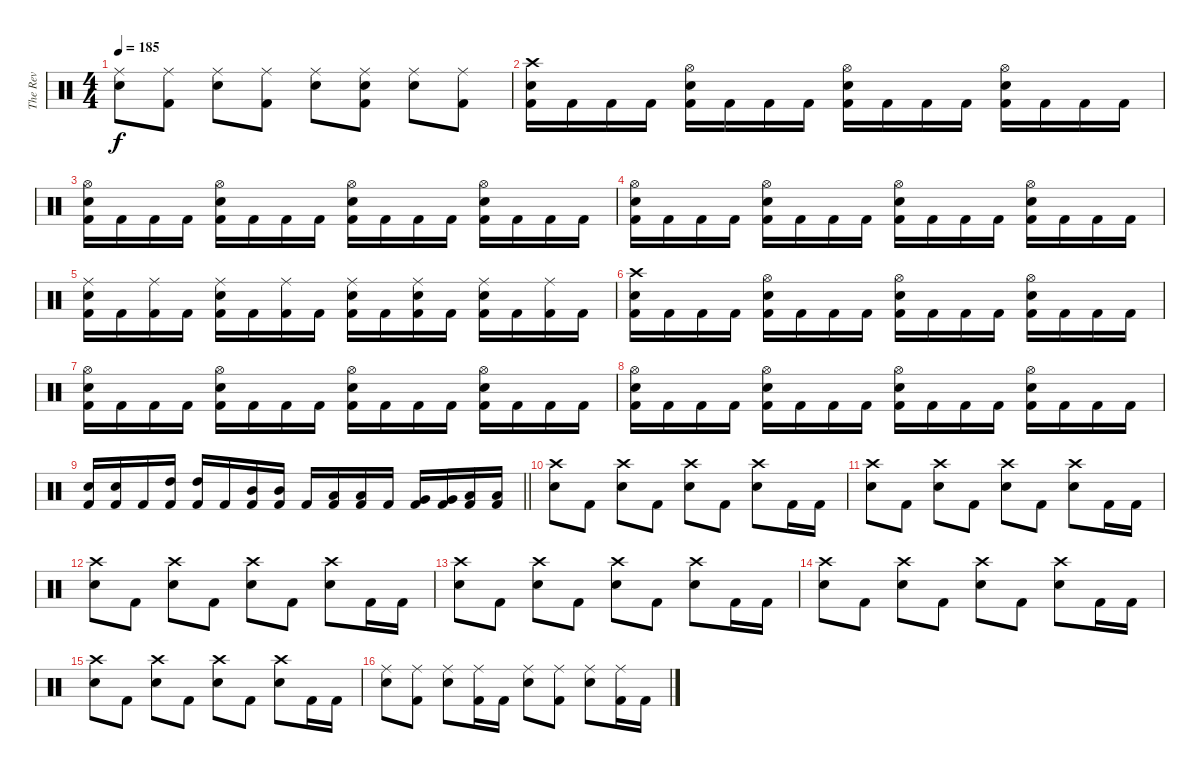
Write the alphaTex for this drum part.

\track ("The Rev" "The Rev") {instrument percussion}
\staff {score}
\articulation defaults
\ts (4 4)
\tempo 185
\clef neutral
\ks c
("Ride (middle)" "Electric Snare (hit)").8{dy f} ("Ride (middle)" "Kick (hit) 2").8 ("Ride (middle)" "Electric Snare (hit)").8 ("Ride (middle)" "Kick (hit) 2").8 ("Ride (middle)" "Electric Snare (hit)").8 ("Ride (middle)" "Electric Snare (hit)" "Kick (hit) 2").8 ("Ride (middle)" "Electric Snare (hit)").8 ("Ride (middle)" "Kick (hit) 2").8 |
("Crash high (hit)" "Electric Snare (hit)" "Kick (hit) 2").16 "Kick (hit) 2".16 "Kick (hit) 2".16 "Kick (hit) 2".16 ("Hi-Hat (open)" "Electric Snare (hit)" "Kick (hit) 2").16 "Kick (hit) 2".16 "Kick (hit) 2".16 "Kick (hit) 2".16 ("Hi-Hat (open)" "Electric Snare (hit)" "Kick (hit) 2").16 "Kick (hit) 2".16 "Kick (hit) 2".16 "Kick (hit) 2".16 ("Hi-Hat (open)" "Electric Snare (hit)" "Kick (hit) 2").16 "Kick (hit) 2".16 "Kick (hit) 2".16 "Kick (hit) 2".16 |
("Hi-Hat (open)" "Electric Snare (hit)" "Kick (hit) 2").16 "Kick (hit) 2".16 "Kick (hit) 2".16 "Kick (hit) 2".16 ("Hi-Hat (open)" "Electric Snare (hit)" "Kick (hit) 2").16 "Kick (hit) 2".16 "Kick (hit) 2".16 "Kick (hit) 2".16 ("Hi-Hat (open)" "Electric Snare (hit)" "Kick (hit) 2").16 "Kick (hit) 2".16 "Kick (hit) 2".16 "Kick (hit) 2".16 ("Hi-Hat (open)" "Electric Snare (hit)" "Kick (hit) 2").16 "Kick (hit) 2".16 "Kick (hit) 2".16 "Kick (hit) 2".16 |
("Hi-Hat (open)" "Electric Snare (hit)" "Kick (hit) 2").16 "Kick (hit) 2".16 "Kick (hit) 2".16 "Kick (hit) 2".16 ("Hi-Hat (open)" "Electric Snare (hit)" "Kick (hit) 2").16 "Kick (hit) 2".16 "Kick (hit) 2".16 "Kick (hit) 2".16 ("Hi-Hat (open)" "Electric Snare (hit)" "Kick (hit) 2").16 "Kick (hit) 2".16 "Kick (hit) 2".16 "Kick (hit) 2".16 ("Hi-Hat (open)" "Electric Snare (hit)" "Kick (hit) 2").16 "Kick (hit) 2".16 "Kick (hit) 2".16 "Kick (hit) 2".16 |
("Ride (middle)" "Electric Snare (hit)" "Kick (hit) 2").16 "Kick (hit) 2".16 ("Ride (middle)" "Kick (hit) 2").16 "Kick (hit) 2".16 ("Ride (middle)" "Electric Snare (hit)" "Kick (hit) 2").16 "Kick (hit) 2".16 ("Ride (middle)" "Kick (hit) 2").16 "Kick (hit) 2".16 ("Ride (middle)" "Electric Snare (hit)" "Kick (hit) 2").16 "Kick (hit) 2".16 ("Ride (middle)" "Electric Snare (hit)" "Kick (hit) 2").16 "Kick (hit) 2".16 ("Ride (middle)" "Electric Snare (hit)" "Kick (hit) 2").16 "Kick (hit) 2".16 ("Ride (middle)" "Kick (hit) 2").16 "Kick (hit) 2".16 |
("Crash high (hit)" "Electric Snare (hit)" "Kick (hit) 2").16 "Kick (hit) 2".16 "Kick (hit) 2".16 "Kick (hit) 2".16 ("Hi-Hat (open)" "Electric Snare (hit)" "Kick (hit) 2").16 "Kick (hit) 2".16 "Kick (hit) 2".16 "Kick (hit) 2".16 ("Hi-Hat (open)" "Electric Snare (hit)" "Kick (hit) 2").16 "Kick (hit) 2".16 "Kick (hit) 2".16 "Kick (hit) 2".16 ("Hi-Hat (open)" "Electric Snare (hit)" "Kick (hit) 2").16 "Kick (hit) 2".16 "Kick (hit) 2".16 "Kick (hit) 2".16 |
("Hi-Hat (open)" "Electric Snare (hit)" "Kick (hit) 2").16 "Kick (hit) 2".16 "Kick (hit) 2".16 "Kick (hit) 2".16 ("Hi-Hat (open)" "Electric Snare (hit)" "Kick (hit) 2").16 "Kick (hit) 2".16 "Kick (hit) 2".16 "Kick (hit) 2".16 ("Hi-Hat (open)" "Electric Snare (hit)" "Kick (hit) 2").16 "Kick (hit) 2".16 "Kick (hit) 2".16 "Kick (hit) 2".16 ("Hi-Hat (open)" "Electric Snare (hit)" "Kick (hit) 2").16 "Kick (hit) 2".16 "Kick (hit) 2".16 "Kick (hit) 2".16 |
("Hi-Hat (open)" "Electric Snare (hit)" "Kick (hit) 2").16 "Kick (hit) 2".16 "Kick (hit) 2".16 "Kick (hit) 2".16 ("Hi-Hat (open)" "Electric Snare (hit)" "Kick (hit) 2").16 "Kick (hit) 2".16 "Kick (hit) 2".16 "Kick (hit) 2".16 ("Hi-Hat (open)" "Electric Snare (hit)" "Kick (hit) 2").16 "Kick (hit) 2".16 "Kick (hit) 2".16 "Kick (hit) 2".16 ("Hi-Hat (open)" "Electric Snare (hit)" "Kick (hit) 2").16 "Kick (hit) 2".16 "Kick (hit) 2".16 "Kick (hit) 2".16 |
\barLineRight lightlight
("Electric Snare (hit)" "Kick (hit) 2").16 ("Electric Snare (hit)" "Kick (hit) 2").16 "Kick (hit) 2".16 ("High Tom (hit)" "Kick (hit) 2").16 ("High Tom (hit)" "Kick (hit) 2").16 "Kick (hit) 2".16 ("Mid Tom (hit)" "Kick (hit) 2").16 ("Mid Tom (hit)" "Kick (hit) 2").16 "Kick (hit) 2".16 ("Low Tom (hit)" "Kick (hit) 2").16 ("Low Tom (hit)" "Kick (hit) 2").16 "Kick (hit) 2".16 ("Very Low Tom (hit)" "Kick (hit) 2").16 ("Very Low Tom (hit)" "Kick (hit) 2").16 ("Low Tom (hit)" "Kick (hit) 2").16 ("Low Tom (hit)" "Kick (hit) 2").16 |
("Crash high (hit)" "Electric Snare (hit)").8 "Kick (hit) 2".8 ("Crash high (hit)" "Electric Snare (hit)").8 "Kick (hit) 2".8 ("Crash high (hit)" "Electric Snare (hit)").8 "Kick (hit) 2".8 ("Crash high (hit)" "Electric Snare (hit)").8 "Kick (hit) 2".16 "Kick (hit) 2".16 |
("Crash high (hit)" "Electric Snare (hit)").8 "Kick (hit) 2".8 ("Crash high (hit)" "Electric Snare (hit)").8 "Kick (hit) 2".8 ("Crash high (hit)" "Electric Snare (hit)").8 "Kick (hit) 2".8 ("Crash high (hit)" "Electric Snare (hit)").8 "Kick (hit) 2".16 "Kick (hit) 2".16 |
("Crash high (hit)" "Electric Snare (hit)").8 "Kick (hit) 2".8 ("Crash high (hit)" "Electric Snare (hit)").8 "Kick (hit) 2".8 ("Crash high (hit)" "Electric Snare (hit)").8 "Kick (hit) 2".8 ("Crash high (hit)" "Electric Snare (hit)").8 "Kick (hit) 2".16 "Kick (hit) 2".16 |
("Crash high (hit)" "Electric Snare (hit)").8 "Kick (hit) 2".8 ("Crash high (hit)" "Electric Snare (hit)").8 "Kick (hit) 2".8 ("Crash high (hit)" "Electric Snare (hit)").8 "Kick (hit) 2".8 ("Crash high (hit)" "Electric Snare (hit)").8 "Kick (hit) 2".16 "Kick (hit) 2".16 |
("Crash high (hit)" "Electric Snare (hit)").8 "Kick (hit) 2".8 ("Crash high (hit)" "Electric Snare (hit)").8 "Kick (hit) 2".8 ("Crash high (hit)" "Electric Snare (hit)").8 "Kick (hit) 2".8 ("Crash high (hit)" "Electric Snare (hit)").8 "Kick (hit) 2".16 "Kick (hit) 2".16 |
("Crash high (hit)" "Electric Snare (hit)").8 "Kick (hit) 2".8 ("Crash high (hit)" "Electric Snare (hit)").8 "Kick (hit) 2".8 ("Crash high (hit)" "Electric Snare (hit)").8 "Kick (hit) 2".8 ("Crash high (hit)" "Electric Snare (hit)").8 "Kick (hit) 2".16 "Kick (hit) 2".16 |
("Ride (middle)" "Electric Snare (hit)").8 ("Ride (middle)" "Kick (hit) 2").8 ("Ride (middle)" "Electric Snare (hit)").8 ("Ride (middle)" "Kick (hit) 2").16 "Kick (hit) 2".16 ("Ride (middle)" "Electric Snare (hit)").8 ("Ride (middle)" "Kick (hit) 2").8 ("Ride (middle)" "Electric Snare (hit)").8 ("Ride (middle)" "Kick (hit) 2").16 "Kick (hit) 2".16
